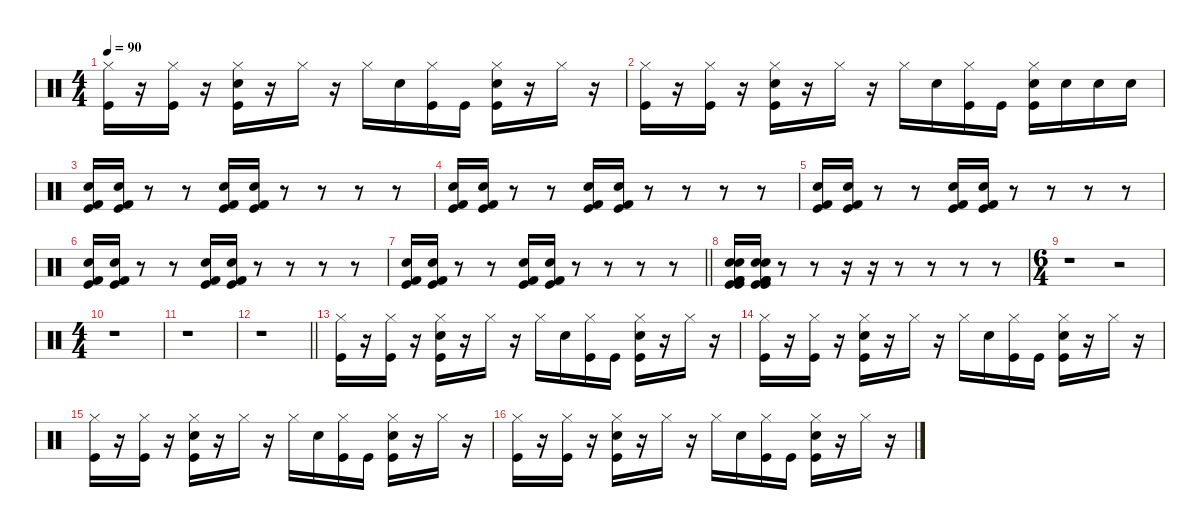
\defaultSystemsLayout 4
\hideDynamics
\bracketExtendMode nobrackets
\singleTrackTrackNamePolicy hidden
\multiTrackTrackNamePolicy hidden
\otherSystemsTrackNameOrientation horizontal
\track ("Slagverk" "drm.") {instrument percussion}
\staff {score}
\articulation defaults
\ts (4 4)
\tempo 90
\clef neutral
\ks c
("Kick (hit)" "Hi-Hat (closed)").16{dy f beam Down} r.16{beam Down} ("Kick (hit)" "Hi-Hat (closed)").16{beam Down} r.16{beam Down} ("Kick (hit)" "Hi-Hat (closed)" "Snare (hit) 2").16{beam Down} r.16{beam Down} "Hi-Hat (closed)".16{beam Down} r.16{beam Down} "Hi-Hat (closed)".16{beam Down} "Snare (hit) 2".16{beam Down} ("Kick (hit)" "Hi-Hat (closed)").16{beam Down} "Kick (hit)".16{beam Down} ("Kick (hit)" "Hi-Hat (closed)" "Snare (hit) 2").16{beam Down} r.16{beam Down} "Hi-Hat (closed)".16{beam Down} r.16{beam Down} |
("Kick (hit)" "Hi-Hat (closed)").16{beam Down} r.16{beam Down} ("Kick (hit)" "Hi-Hat (closed)").16{beam Down} r.16{beam Down} ("Kick (hit)" "Hi-Hat (closed)" "Snare (hit) 2").16{beam Down} r.16{beam Down} "Hi-Hat (closed)".16{beam Down} r.16{beam Down} "Hi-Hat (closed)".16{beam Down} "Snare (hit) 2".16{beam Down} ("Kick (hit)" "Hi-Hat (closed)").16{beam Down} "Kick (hit)".16{beam Down} ("Kick (hit)" "Hi-Hat (closed)" "Snare (hit) 2").16{beam Down} "Snare (hit) 2".16{beam Down} "Snare (hit) 2".16{beam Down} "Snare (hit) 2".16{beam Down} |
("Snare (hit) 2" "Kick (hit)" "Kick (hit) 2").16{beam Up} ("Snare (hit) 2" "Kick (hit)" "Kick (hit) 2").16{beam Up} r.8{beam Up} r.8{beam Up} ("Snare (hit) 2" "Kick (hit)" "Kick (hit) 2").16{beam Up} ("Snare (hit) 2" "Kick (hit)" "Kick (hit) 2").16{beam Up} r.8{beam Up} r.8{beam Up} r.8{beam Up} r.8{beam Up} |
("Snare (hit) 2" "Kick (hit)" "Kick (hit) 2").16{beam Up} ("Snare (hit) 2" "Kick (hit)" "Kick (hit) 2").16{beam Up} r.8{beam Up} r.8{beam Up} ("Snare (hit) 2" "Kick (hit)" "Kick (hit) 2").16{beam Up} ("Snare (hit) 2" "Kick (hit)" "Kick (hit) 2").16{beam Up} r.8{beam Up} r.8{beam Up} r.8{beam Up} r.8{beam Up} |
("Snare (hit) 2" "Kick (hit)" "Kick (hit) 2").16{beam Up} ("Snare (hit) 2" "Kick (hit)" "Kick (hit) 2").16{beam Up} r.8{beam Up} r.8{beam Up} ("Snare (hit) 2" "Kick (hit)" "Kick (hit) 2").16{beam Up} ("Snare (hit) 2" "Kick (hit)" "Kick (hit) 2").16{beam Up} r.8{beam Up} r.8{beam Up} r.8{beam Up} r.8{beam Up} |
("Snare (hit) 2" "Kick (hit)" "Kick (hit) 2").16{beam Up} ("Snare (hit) 2" "Kick (hit)" "Kick (hit) 2").16{beam Up} r.8{beam Up} r.8{beam Up} ("Snare (hit) 2" "Kick (hit)" "Kick (hit) 2").16{beam Up} ("Snare (hit) 2" "Kick (hit)" "Kick (hit) 2").16{beam Up} r.8{beam Up} r.8{beam Up} r.8{beam Up} r.8{beam Up} |
\barLineRight lightlight
("Snare (hit) 2" "Kick (hit)" "Kick (hit) 2").16{beam Up} ("Snare (hit) 2" "Kick (hit)" "Kick (hit) 2").16{beam Up} r.8{beam Up} r.8{beam Up} ("Snare (hit) 2" "Kick (hit)" "Kick (hit) 2").16{beam Up} ("Snare (hit) 2" "Kick (hit)" "Kick (hit) 2").16{beam Up} r.8{beam Up} r.8{beam Up} r.8{beam Up} r.8{beam Up} |
("Snare (hit) 2" "Kick (hit)" "Kick (hit) 2" "Snare (hit) 2" "Kick (hit)" "Kick (hit) 2").16{beam Up} ("Snare (hit) 2" "Kick (hit)" "Kick (hit) 2" "Snare (hit) 2" "Kick (hit)" "Kick (hit) 2").16{beam Up} r.8{beam Up} r.8{beam Up} r.16{beam Up} r.16{beam Up} r.8{beam Up} r.8{beam Up} r.8{beam Up} r.8{beam Up} |
\ts (6 4)
r.1{beam Down} r.2{beam Down} |
\ts (4 4)
r.1{beam Down} |
r.1{beam Down} |
\barLineRight lightlight
r.1{beam Down} |
("Kick (hit)" "Hi-Hat (closed)").16{beam Down} r.16{beam Down} ("Kick (hit)" "Hi-Hat (closed)").16{beam Down} r.16{beam Down} ("Kick (hit)" "Hi-Hat (closed)" "Snare (hit) 2").16{beam Down} r.16{beam Down} "Hi-Hat (closed)".16{beam Down} r.16{beam Down} "Hi-Hat (closed)".16{beam Down} "Snare (hit) 2".16{beam Down} ("Kick (hit)" "Hi-Hat (closed)").16{beam Down} "Kick (hit)".16{beam Down} ("Kick (hit)" "Hi-Hat (closed)" "Snare (hit) 2").16{beam Down} r.16{beam Down} "Hi-Hat (closed)".16{beam Down} r.16{beam Down} |
("Kick (hit)" "Hi-Hat (closed)").16{beam Down} r.16{beam Down} ("Kick (hit)" "Hi-Hat (closed)").16{beam Down} r.16{beam Down} ("Kick (hit)" "Hi-Hat (closed)" "Snare (hit) 2").16{beam Down} r.16{beam Down} "Hi-Hat (closed)".16{beam Down} r.16{beam Down} "Hi-Hat (closed)".16{beam Down} "Snare (hit) 2".16{beam Down} ("Kick (hit)" "Hi-Hat (closed)").16{beam Down} "Kick (hit)".16{beam Down} ("Kick (hit)" "Hi-Hat (closed)" "Snare (hit) 2").16{beam Down} r.16{beam Down} "Hi-Hat (closed)".16{beam Down} r.16{beam Down} |
("Kick (hit)" "Hi-Hat (closed)").16{beam Down} r.16{beam Down} ("Kick (hit)" "Hi-Hat (closed)").16{beam Down} r.16{beam Down} ("Kick (hit)" "Hi-Hat (closed)" "Snare (hit) 2").16{beam Down} r.16{beam Down} "Hi-Hat (closed)".16{beam Down} r.16{beam Down} "Hi-Hat (closed)".16{beam Down} "Snare (hit) 2".16{beam Down} ("Kick (hit)" "Hi-Hat (closed)").16{beam Down} "Kick (hit)".16{beam Down} ("Kick (hit)" "Hi-Hat (closed)" "Snare (hit) 2").16{beam Down} r.16{beam Down} "Hi-Hat (closed)".16{beam Down} r.16{beam Down} |
("Kick (hit)" "Hi-Hat (closed)").16{beam Down} r.16{beam Down} ("Kick (hit)" "Hi-Hat (closed)").16{beam Down} r.16{beam Down} ("Kick (hit)" "Hi-Hat (closed)" "Snare (hit) 2").16{beam Down} r.16{beam Down} "Hi-Hat (closed)".16{beam Down} r.16{beam Down} "Hi-Hat (closed)".16{beam Down} "Snare (hit) 2".16{beam Down} ("Kick (hit)" "Hi-Hat (closed)").16{beam Down} "Kick (hit)".16{beam Down} ("Kick (hit)" "Hi-Hat (closed)" "Snare (hit) 2").16{beam Down} r.16{beam Down} "Hi-Hat (closed)".16{beam Down} r.16{beam Down}
